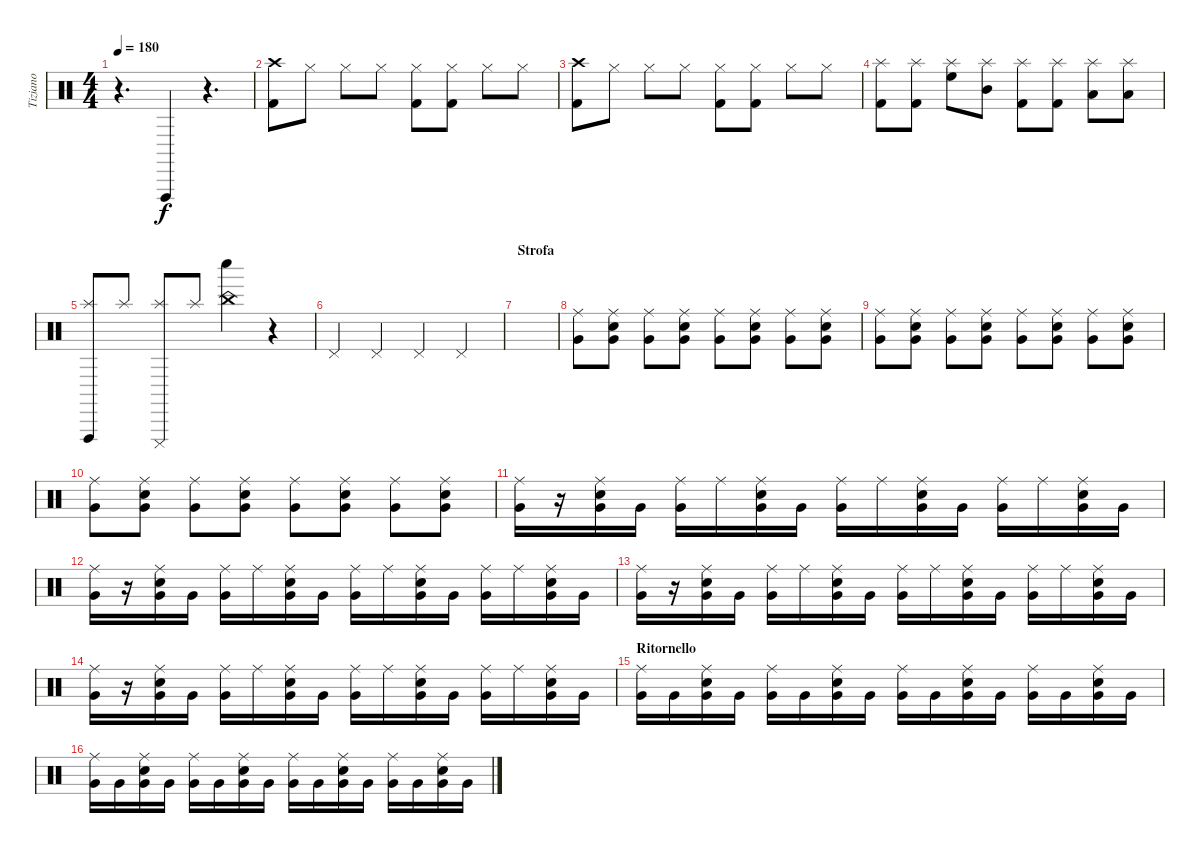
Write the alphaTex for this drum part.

\track ("Tiziano" "Tiziano") {instrument percussion}
\staff {score}
\articulation defaults
\ts (4 4)
\tempo 180
\clef neutral
\ks c
r.4{d dy f} "Vibraslap (hit)".4 r.4{d} |
("Crash high (hit)" "Kick (hit) 2").8 "Hi-Hat (closed)".8 "Hi-Hat (closed)".8 "Hi-Hat (closed)".8 ("Hi-Hat (closed)" "Kick (hit) 2").8 ("Hi-Hat (closed)" "Kick (hit) 2").8 "Hi-Hat (closed)".8 "Hi-Hat (closed)".8 |
("Crash high (hit)" "Kick (hit) 2").8 "Hi-Hat (closed)".8 "Hi-Hat (closed)".8 "Hi-Hat (closed)".8 ("Hi-Hat (closed)" "Kick (hit) 2").8 ("Hi-Hat (closed)" "Kick (hit) 2").8 "Hi-Hat (closed)".8 "Hi-Hat (closed)".8 |
("Splash (hit)" "Kick (hit) 2").8 ("Splash (hit)" "Kick (hit) 2").8 ("Splash (hit)" "High Floor Tom (hit)").8 ("Splash (hit)" "Mid Tom (hit)").8 ("Splash (hit)" "Kick (hit) 2").8 ("Splash (hit)" "Kick (hit) 2").8 ("Splash (hit)" "Low Tom (hit)").8 ("Splash (hit)" "Low Floor Tom (hit)").8 |
("Splash (hit)" "Vibraslap (hit)").8 "Splash (hit)".8 ("Splash (hit)" "Cuica (mute)").8 "Splash (hit)".8 ("China (hit)" "Whistle low (hit)").4 r.4 |
"Pedal Hi-Hat (hit)".4 "Pedal Hi-Hat (hit)".4 "Pedal Hi-Hat (hit)".4 "Pedal Hi-Hat (hit)".4 |
\section ("" "Strofa")
|
("Very Low Tom (hit)" "Ride (middle)").8 ("Very Low Tom (hit)" "Snare (hit) 2" "Ride (middle)").8 ("Very Low Tom (hit)" "Ride (middle)").8 ("Very Low Tom (hit)" "Snare (hit) 2" "Ride (middle)").8 ("Very Low Tom (hit)" "Ride (middle)").8 ("Very Low Tom (hit)" "Snare (hit) 2" "Ride (middle)").8 ("Very Low Tom (hit)" "Ride (middle)").8 ("Very Low Tom (hit)" "Snare (hit) 2" "Ride (middle)").8 |
("Very Low Tom (hit)" "Ride (middle)").8 ("Very Low Tom (hit)" "Snare (hit) 2" "Ride (middle)").8 ("Very Low Tom (hit)" "Ride (middle)").8 ("Very Low Tom (hit)" "Snare (hit) 2" "Ride (middle)").8 ("Very Low Tom (hit)" "Ride (middle)").8 ("Very Low Tom (hit)" "Snare (hit) 2" "Ride (middle)").8 ("Very Low Tom (hit)" "Ride (middle)").8 ("Very Low Tom (hit)" "Snare (hit) 2" "Ride (middle)").8 |
("Very Low Tom (hit)" "Ride (middle)").8 ("Very Low Tom (hit)" "Snare (hit) 2" "Ride (middle)").8 ("Very Low Tom (hit)" "Ride (middle)").8 ("Very Low Tom (hit)" "Snare (hit) 2" "Ride (middle)").8 ("Very Low Tom (hit)" "Ride (middle)").8 ("Very Low Tom (hit)" "Snare (hit) 2" "Ride (middle)").8 ("Very Low Tom (hit)" "Ride (middle)").8 ("Very Low Tom (hit)" "Snare (hit) 2" "Ride (middle)").8 |
("Very Low Tom (hit)" "Ride (middle)").16 r.16 ("Very Low Tom (hit)" "Snare (hit) 2" "Ride (middle)").16 "Very Low Tom (hit)".16 ("Very Low Tom (hit)" "Ride (middle)").16 "Ride (middle)".16 ("Very Low Tom (hit)" "Snare (hit) 2" "Ride (middle)").16 "Very Low Tom (hit)".16 ("Very Low Tom (hit)" "Ride (middle)").16 "Ride (middle)".16 ("Very Low Tom (hit)" "Snare (hit) 2" "Ride (middle)").16 "Very Low Tom (hit)".16 ("Very Low Tom (hit)" "Ride (middle)").16 "Ride (middle)".16 ("Very Low Tom (hit)" "Snare (hit) 2" "Ride (middle)").16 "Very Low Tom (hit)".16 |
("Very Low Tom (hit)" "Ride (middle)").16 r.16 ("Very Low Tom (hit)" "Snare (hit) 2" "Ride (middle)").16 "Very Low Tom (hit)".16 ("Very Low Tom (hit)" "Ride (middle)").16 "Ride (middle)".16 ("Very Low Tom (hit)" "Snare (hit) 2" "Ride (middle)").16 "Very Low Tom (hit)".16 ("Very Low Tom (hit)" "Ride (middle)").16 "Ride (middle)".16 ("Very Low Tom (hit)" "Snare (hit) 2" "Ride (middle)").16 "Very Low Tom (hit)".16 ("Very Low Tom (hit)" "Ride (middle)").16 "Ride (middle)".16 ("Very Low Tom (hit)" "Snare (hit) 2" "Ride (middle)").16 "Very Low Tom (hit)".16 |
("Very Low Tom (hit)" "Ride (middle)").16 r.16 ("Very Low Tom (hit)" "Snare (hit) 2" "Ride (middle)").16 "Very Low Tom (hit)".16 ("Very Low Tom (hit)" "Ride (middle)").16 "Ride (middle)".16 ("Very Low Tom (hit)" "Snare (hit) 2" "Ride (middle)").16 "Very Low Tom (hit)".16 ("Very Low Tom (hit)" "Ride (middle)").16 "Ride (middle)".16 ("Very Low Tom (hit)" "Snare (hit) 2" "Ride (middle)").16 "Very Low Tom (hit)".16 ("Very Low Tom (hit)" "Ride (middle)").16 "Ride (middle)".16 ("Very Low Tom (hit)" "Snare (hit) 2" "Ride (middle)").16 "Very Low Tom (hit)".16 |
("Very Low Tom (hit)" "Ride (middle)").16 r.16 ("Very Low Tom (hit)" "Snare (hit) 2" "Ride (middle)").16 "Very Low Tom (hit)".16 ("Very Low Tom (hit)" "Ride (middle)").16 "Ride (middle)".16 ("Very Low Tom (hit)" "Snare (hit) 2" "Ride (middle)").16 "Very Low Tom (hit)".16 ("Very Low Tom (hit)" "Ride (middle)").16 "Ride (middle)".16 ("Very Low Tom (hit)" "Snare (hit) 2" "Ride (middle)").16 "Very Low Tom (hit)".16 ("Very Low Tom (hit)" "Ride (middle)").16 "Ride (middle)".16 ("Very Low Tom (hit)" "Snare (hit) 2" "Ride (middle)").16 "Very Low Tom (hit)".16 |
\section ("" "Ritornello")
("Very Low Tom (hit)" "Ride (middle)").16 "Very Low Tom (hit)".16 ("Very Low Tom (hit)" "Snare (hit) 2" "Ride (middle)").16 "Very Low Tom (hit)".16 ("Very Low Tom (hit)" "Ride (middle)").16 "Very Low Tom (hit)".16 ("Very Low Tom (hit)" "Snare (hit) 2" "Ride (middle)").16 "Very Low Tom (hit)".16 ("Very Low Tom (hit)" "Ride (middle)").16 "Very Low Tom (hit)".16 ("Very Low Tom (hit)" "Snare (hit) 2" "Ride (middle)").16 "Very Low Tom (hit)".16 ("Very Low Tom (hit)" "Ride (middle)").16 "Very Low Tom (hit)".16 ("Very Low Tom (hit)" "Snare (hit) 2" "Ride (middle)").16 "Very Low Tom (hit)".16 |
("Very Low Tom (hit)" "Ride (middle)").16 "Very Low Tom (hit)".16 ("Very Low Tom (hit)" "Snare (hit) 2" "Ride (middle)").16 "Very Low Tom (hit)".16 ("Very Low Tom (hit)" "Ride (middle)").16 "Very Low Tom (hit)".16 ("Very Low Tom (hit)" "Snare (hit) 2" "Ride (middle)").16 "Very Low Tom (hit)".16 ("Very Low Tom (hit)" "Ride (middle)").16 "Very Low Tom (hit)".16 ("Very Low Tom (hit)" "Snare (hit) 2" "Ride (middle)").16 "Very Low Tom (hit)".16 ("Very Low Tom (hit)" "Ride (middle)").16 "Very Low Tom (hit)".16 ("Very Low Tom (hit)" "Snare (hit) 2" "Ride (middle)").16 "Very Low Tom (hit)".16
